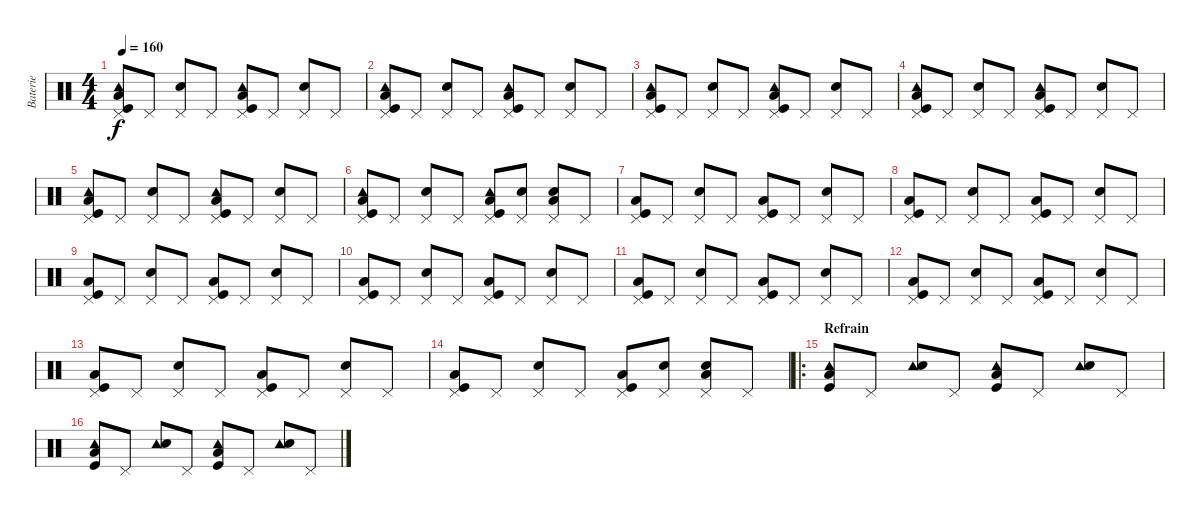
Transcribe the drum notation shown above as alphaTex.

\track ("Baterie" "Baterie") {instrument percussion}
\staff {score}
\articulation defaults
\ts (4 4)
\tempo 160
\clef neutral
\ks c
("Pedal Hi-Hat (hit)" "Tambourine (hit)" "Low Floor Tom (hit)" "Kick (hit)").8{dy f} "Pedal Hi-Hat (hit)".8 ("Pedal Hi-Hat (hit)" "Electric Snare (hit)").8 "Pedal Hi-Hat (hit)".8 ("Pedal Hi-Hat (hit)" "Tambourine (hit)" "Low Floor Tom (hit)" "Kick (hit)").8 "Pedal Hi-Hat (hit)".8 ("Pedal Hi-Hat (hit)" "Electric Snare (hit)").8 "Pedal Hi-Hat (hit)".8 |
("Pedal Hi-Hat (hit)" "Tambourine (hit)" "Low Floor Tom (hit)" "Kick (hit)").8 "Pedal Hi-Hat (hit)".8 ("Pedal Hi-Hat (hit)" "Electric Snare (hit)").8 "Pedal Hi-Hat (hit)".8 ("Pedal Hi-Hat (hit)" "Tambourine (hit)" "Low Floor Tom (hit)" "Kick (hit)").8 "Pedal Hi-Hat (hit)".8 ("Pedal Hi-Hat (hit)" "Electric Snare (hit)").8 "Pedal Hi-Hat (hit)".8 |
("Pedal Hi-Hat (hit)" "Tambourine (hit)" "Low Floor Tom (hit)" "Kick (hit)").8 "Pedal Hi-Hat (hit)".8 ("Pedal Hi-Hat (hit)" "Electric Snare (hit)").8 "Pedal Hi-Hat (hit)".8 ("Pedal Hi-Hat (hit)" "Tambourine (hit)" "Low Floor Tom (hit)" "Kick (hit)").8 "Pedal Hi-Hat (hit)".8 ("Pedal Hi-Hat (hit)" "Electric Snare (hit)").8 "Pedal Hi-Hat (hit)".8 |
("Pedal Hi-Hat (hit)" "Tambourine (hit)" "Low Floor Tom (hit)" "Kick (hit)").8 "Pedal Hi-Hat (hit)".8 ("Pedal Hi-Hat (hit)" "Electric Snare (hit)").8 "Pedal Hi-Hat (hit)".8 ("Pedal Hi-Hat (hit)" "Tambourine (hit)" "Low Floor Tom (hit)" "Kick (hit)").8 "Pedal Hi-Hat (hit)".8 ("Pedal Hi-Hat (hit)" "Electric Snare (hit)").8 "Pedal Hi-Hat (hit)".8 |
("Pedal Hi-Hat (hit)" "Tambourine (hit)" "Low Floor Tom (hit)" "Kick (hit)").8 "Pedal Hi-Hat (hit)".8 ("Pedal Hi-Hat (hit)" "Electric Snare (hit)").8 "Pedal Hi-Hat (hit)".8 ("Pedal Hi-Hat (hit)" "Tambourine (hit)" "Low Floor Tom (hit)" "Kick (hit)").8 "Pedal Hi-Hat (hit)".8 ("Pedal Hi-Hat (hit)" "Electric Snare (hit)").8 "Pedal Hi-Hat (hit)".8 |
("Pedal Hi-Hat (hit)" "Tambourine (hit)" "Low Floor Tom (hit)" "Kick (hit)").8 "Pedal Hi-Hat (hit)".8 ("Pedal Hi-Hat (hit)" "Electric Snare (hit)").8 "Pedal Hi-Hat (hit)".8 ("Pedal Hi-Hat (hit)" "Tambourine (hit)" "Low Floor Tom (hit)" "Kick (hit)").8 ("Pedal Hi-Hat (hit)" "Electric Snare (hit)").8 ("Pedal Hi-Hat (hit)" "Electric Snare (hit)" "Low Floor Tom (hit)").8 "Pedal Hi-Hat (hit)".8 |
("Pedal Hi-Hat (hit)" "Low Floor Tom (hit)" "Kick (hit)").8 "Pedal Hi-Hat (hit)".8 ("Pedal Hi-Hat (hit)" "Electric Snare (hit)").8 "Pedal Hi-Hat (hit)".8 ("Pedal Hi-Hat (hit)" "Low Floor Tom (hit)" "Kick (hit)").8 "Pedal Hi-Hat (hit)".8 ("Pedal Hi-Hat (hit)" "Electric Snare (hit)").8 "Pedal Hi-Hat (hit)".8 |
("Pedal Hi-Hat (hit)" "Low Floor Tom (hit)" "Kick (hit)").8 "Pedal Hi-Hat (hit)".8 ("Pedal Hi-Hat (hit)" "Electric Snare (hit)").8 "Pedal Hi-Hat (hit)".8 ("Pedal Hi-Hat (hit)" "Low Floor Tom (hit)" "Kick (hit)").8 "Pedal Hi-Hat (hit)".8 ("Pedal Hi-Hat (hit)" "Electric Snare (hit)").8 "Pedal Hi-Hat (hit)".8 |
("Pedal Hi-Hat (hit)" "Low Floor Tom (hit)" "Kick (hit)").8 "Pedal Hi-Hat (hit)".8 ("Pedal Hi-Hat (hit)" "Electric Snare (hit)").8 "Pedal Hi-Hat (hit)".8 ("Pedal Hi-Hat (hit)" "Low Floor Tom (hit)" "Kick (hit)").8 "Pedal Hi-Hat (hit)".8 ("Pedal Hi-Hat (hit)" "Electric Snare (hit)").8 "Pedal Hi-Hat (hit)".8 |
("Pedal Hi-Hat (hit)" "Low Floor Tom (hit)" "Kick (hit)").8 "Pedal Hi-Hat (hit)".8 ("Pedal Hi-Hat (hit)" "Electric Snare (hit)").8 "Pedal Hi-Hat (hit)".8 ("Pedal Hi-Hat (hit)" "Low Floor Tom (hit)" "Kick (hit)").8 "Pedal Hi-Hat (hit)".8 ("Pedal Hi-Hat (hit)" "Electric Snare (hit)").8 "Pedal Hi-Hat (hit)".8 |
("Pedal Hi-Hat (hit)" "Low Floor Tom (hit)" "Kick (hit)").8 "Pedal Hi-Hat (hit)".8 ("Pedal Hi-Hat (hit)" "Electric Snare (hit)").8 "Pedal Hi-Hat (hit)".8 ("Pedal Hi-Hat (hit)" "Low Floor Tom (hit)" "Kick (hit)").8 "Pedal Hi-Hat (hit)".8 ("Pedal Hi-Hat (hit)" "Electric Snare (hit)").8 "Pedal Hi-Hat (hit)".8 |
("Pedal Hi-Hat (hit)" "Low Floor Tom (hit)" "Kick (hit)").8 "Pedal Hi-Hat (hit)".8 ("Pedal Hi-Hat (hit)" "Electric Snare (hit)").8 "Pedal Hi-Hat (hit)".8 ("Pedal Hi-Hat (hit)" "Low Floor Tom (hit)" "Kick (hit)").8 "Pedal Hi-Hat (hit)".8 ("Pedal Hi-Hat (hit)" "Electric Snare (hit)").8 "Pedal Hi-Hat (hit)".8 |
("Pedal Hi-Hat (hit)" "Low Floor Tom (hit)" "Kick (hit)").8 "Pedal Hi-Hat (hit)".8 ("Pedal Hi-Hat (hit)" "Electric Snare (hit)").8 "Pedal Hi-Hat (hit)".8 ("Pedal Hi-Hat (hit)" "Low Floor Tom (hit)" "Kick (hit)").8 "Pedal Hi-Hat (hit)".8 ("Pedal Hi-Hat (hit)" "Electric Snare (hit)").8 "Pedal Hi-Hat (hit)".8 |
("Pedal Hi-Hat (hit)" "Low Floor Tom (hit)" "Kick (hit)").8 "Pedal Hi-Hat (hit)".8 ("Pedal Hi-Hat (hit)" "Electric Snare (hit)").8 "Pedal Hi-Hat (hit)".8 ("Pedal Hi-Hat (hit)" "Low Floor Tom (hit)" "Kick (hit)").8 ("Pedal Hi-Hat (hit)" "Electric Snare (hit)").8 ("Pedal Hi-Hat (hit)" "Electric Snare (hit)" "Low Floor Tom (hit)").8 "Pedal Hi-Hat (hit)".8 |
\ro
\section ("" "Refrain")
("Tambourine (hit)" "Low Floor Tom (hit)" "Kick (hit)").8 "Pedal Hi-Hat (hit)".8 ("Tambourine (hit)" "Electric Snare (hit)").8 "Pedal Hi-Hat (hit)".8 ("Tambourine (hit)" "Low Floor Tom (hit)" "Kick (hit)").8 "Pedal Hi-Hat (hit)".8 ("Tambourine (hit)" "Electric Snare (hit)").8 "Pedal Hi-Hat (hit)".8 |
("Tambourine (hit)" "Low Floor Tom (hit)" "Kick (hit)").8 "Pedal Hi-Hat (hit)".8 ("Tambourine (hit)" "Electric Snare (hit)").8 "Pedal Hi-Hat (hit)".8 ("Tambourine (hit)" "Low Floor Tom (hit)" "Kick (hit)").8 "Pedal Hi-Hat (hit)".8 ("Tambourine (hit)" "Electric Snare (hit)").8 "Pedal Hi-Hat (hit)".8
